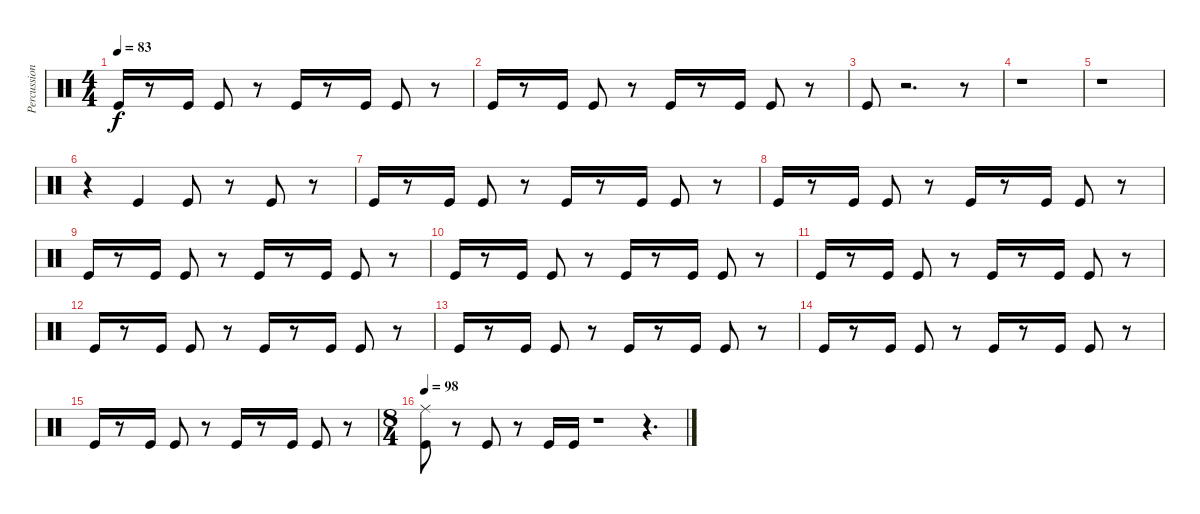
\track ("Percussion" "Percussion") {instrument percussion}
\staff {score}
\articulation defaults
\ts (4 4)
\tempo 83
\clef neutral
\ks c "Kick (hit)".16{dy f}
r.8 "Kick (hit)".16 "Kick (hit)".8 r.8 "Kick (hit)".16 r.8 "Kick (hit)".16 "Kick (hit)".8 r.8 |
"Kick (hit)".16 r.8 "Kick (hit)".16 "Kick (hit)".8 r.8 "Kick (hit)".16 r.8 "Kick (hit)".16 "Kick (hit)".8 r.8 |
"Kick (hit)".8 r.2{d} r.8 |
r.1 |
r.1 |
r.4 "Kick (hit)".4 "Kick (hit)".8 r.8 "Kick (hit)".8 r.8 |
"Kick (hit)".16 r.8 "Kick (hit)".16 "Kick (hit)".8 r.8 "Kick (hit)".16 r.8 "Kick (hit)".16 "Kick (hit)".8 r.8 |
"Kick (hit)".16 r.8 "Kick (hit)".16 "Kick (hit)".8 r.8 "Kick (hit)".16 r.8 "Kick (hit)".16 "Kick (hit)".8 r.8 |
"Kick (hit)".16 r.8 "Kick (hit)".16 "Kick (hit)".8 r.8 "Kick (hit)".16 r.8 "Kick (hit)".16 "Kick (hit)".8 r.8 |
"Kick (hit)".16 r.8 "Kick (hit)".16 "Kick (hit)".8 r.8 "Kick (hit)".16 r.8 "Kick (hit)".16 "Kick (hit)".8 r.8 |
"Kick (hit)".16 r.8 "Kick (hit)".16 "Kick (hit)".8 r.8 "Kick (hit)".16 r.8 "Kick (hit)".16 "Kick (hit)".8 r.8 |
"Kick (hit)".16 r.8 "Kick (hit)".16 "Kick (hit)".8 r.8 "Kick (hit)".16 r.8 "Kick (hit)".16 "Kick (hit)".8 r.8 |
"Kick (hit)".16 r.8 "Kick (hit)".16 "Kick (hit)".8 r.8 "Kick (hit)".16 r.8 "Kick (hit)".16 "Kick (hit)".8 r.8 |
"Kick (hit)".16 r.8 "Kick (hit)".16 "Kick (hit)".8 r.8 "Kick (hit)".16 r.8 "Kick (hit)".16 "Kick (hit)".8 r.8 |
"Kick (hit)".16 r.8 "Kick (hit)".16 "Kick (hit)".8 r.8 "Kick (hit)".16 r.8 "Kick (hit)".16 "Kick (hit)".8 r.8 |
\ts (8 4)
\tempo 98
("Kick (hit)" "Ride (middle)").8 r.8 "Kick (hit)".8 r.8 "Kick (hit)".16 "Kick (hit)".16 r.1 r.4{d}
